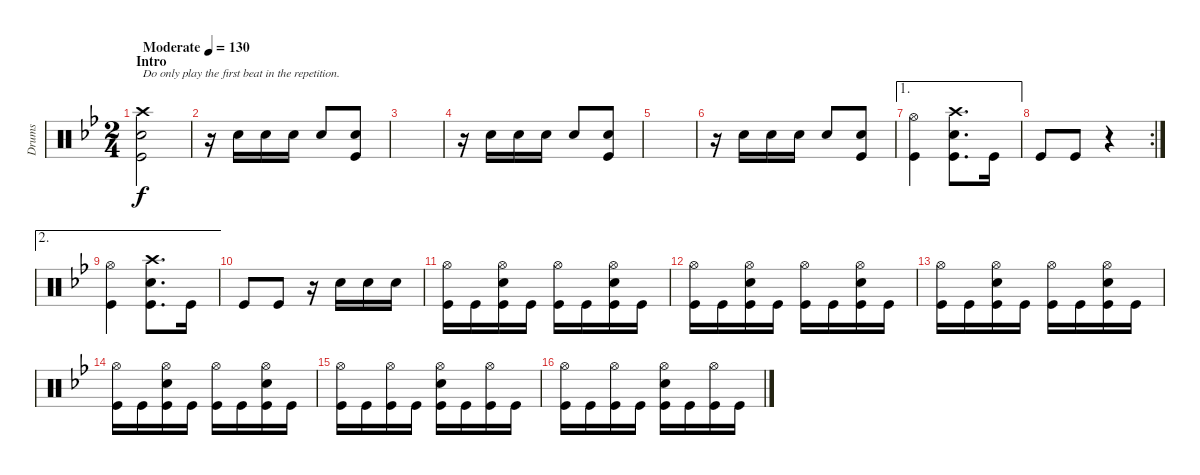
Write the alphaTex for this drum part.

\track ("Drums" "Drums") {instrument percussion}
\staff {score}
\articulation defaults
\ts (2 4)
\section ("" "Intro")
\tempo (130 "Moderate")
\clef neutral
\ks gminor
("Snare (hit) 2" "Kick (hit)" "Crash high (hit)").2{txt "Do only play the first beat in the repetition." dy f} |
r.16 "Snare (hit) 2".16 "Snare (hit) 2".16 "Snare (hit) 2".16 "Snare (hit) 2".8 ("Snare (hit) 2" "Kick (hit)").8 |
|
r.16 "Snare (hit) 2".16 "Snare (hit) 2".16 "Snare (hit) 2".16 "Snare (hit) 2".8 ("Snare (hit) 2" "Kick (hit)").8 |
|
r.16 "Snare (hit) 2".16 "Snare (hit) 2".16 "Snare (hit) 2".16 "Snare (hit) 2".8 ("Snare (hit) 2" "Kick (hit)").8 |
\ae 1
("Kick (hit)" "Hi-Hat (open)").4 ("Kick (hit)" "Crash high (hit)" "Snare (hit) 2").8{d} "Kick (hit)".16 |
\rc 2 "Kick (hit)".8 "Kick (hit)".8
r.4 |
\ae 2
("Kick (hit)" "Hi-Hat (open)").4 ("Kick (hit)" "Crash high (hit)" "Snare (hit) 2").8{d} "Kick (hit)".16 |
"Kick (hit)".8 "Kick (hit)".8 r.16 "Snare (hit) 2".16 "Snare (hit) 2".16 "Snare (hit) 2".16 |
("Kick (hit)" "Hi-Hat (open)").16 "Kick (hit)".16 ("Kick (hit)" "Snare (hit) 2" "Hi-Hat (open)").16 "Kick (hit)".16 ("Kick (hit)" "Hi-Hat (open)").16 "Kick (hit)".16 ("Kick (hit)" "Snare (hit) 2" "Hi-Hat (open)").16 "Kick (hit)".16 |
("Kick (hit)" "Hi-Hat (open)").16 "Kick (hit)".16 ("Kick (hit)" "Snare (hit) 2" "Hi-Hat (open)").16 "Kick (hit)".16 ("Kick (hit)" "Hi-Hat (open)").16 "Kick (hit)".16 ("Kick (hit)" "Snare (hit) 2" "Hi-Hat (open)").16 "Kick (hit)".16 |
("Kick (hit)" "Hi-Hat (open)").16 "Kick (hit)".16 ("Kick (hit)" "Snare (hit) 2" "Hi-Hat (open)").16 "Kick (hit)".16 ("Kick (hit)" "Hi-Hat (open)").16 "Kick (hit)".16 ("Kick (hit)" "Snare (hit) 2" "Hi-Hat (open)").16 "Kick (hit)".16 |
("Kick (hit)" "Hi-Hat (open)").16 "Kick (hit)".16 ("Kick (hit)" "Snare (hit) 2" "Hi-Hat (open)").16 "Kick (hit)".16 ("Kick (hit)" "Hi-Hat (open)").16 "Kick (hit)".16 ("Kick (hit)" "Snare (hit) 2" "Hi-Hat (open)").16 "Kick (hit)".16 |
("Kick (hit)" "Hi-Hat (open)").16 "Kick (hit)".16 ("Kick (hit)" "Hi-Hat (open)").16 "Kick (hit)".16 ("Kick (hit)" "Snare (hit) 2" "Hi-Hat (open)").16 "Kick (hit)".16 ("Kick (hit)" "Hi-Hat (open)").16 "Kick (hit)".16 |
("Kick (hit)" "Hi-Hat (open)").16 "Kick (hit)".16 ("Kick (hit)" "Hi-Hat (open)").16 "Kick (hit)".16 ("Kick (hit)" "Snare (hit) 2" "Hi-Hat (open)").16 "Kick (hit)".16 ("Kick (hit)" "Hi-Hat (open)").16 "Kick (hit)".16
